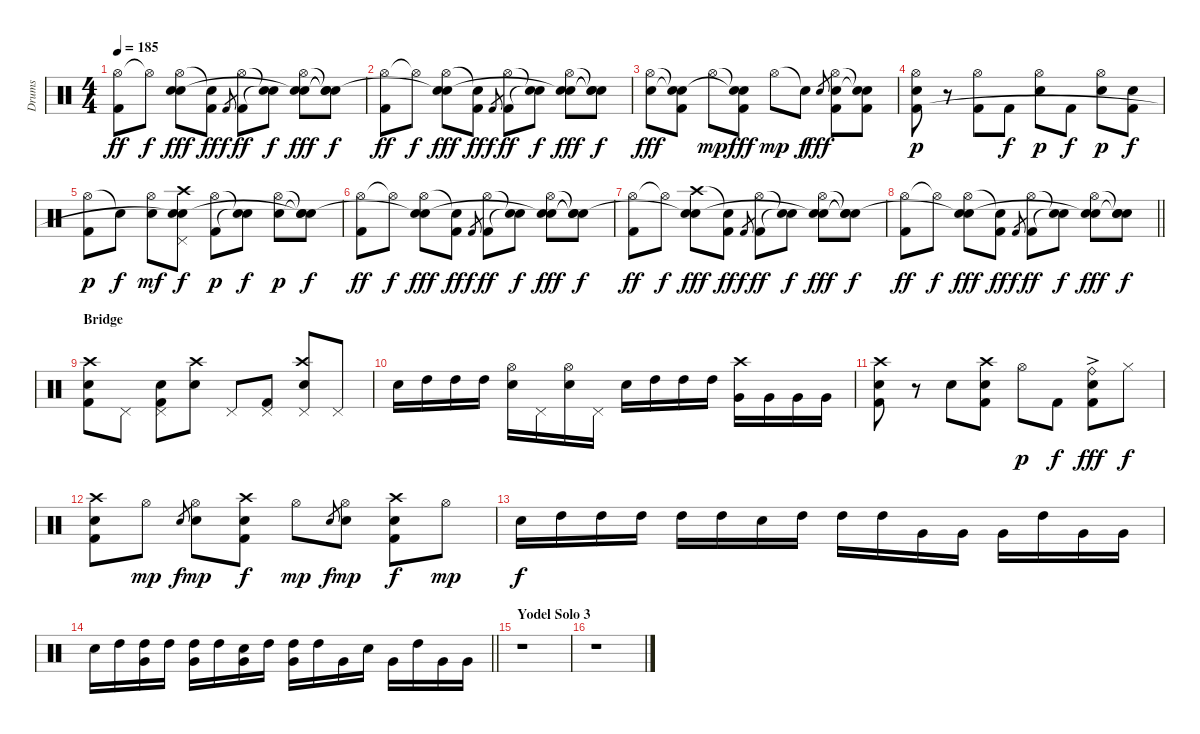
\track ("Drums" "Drums") {instrument percussion}
\staff {score}
\articulation defaults
\ts (4 4)
\tempo 185
\clef neutral
\ks c
("Hi-Hat (open)" "Kick (hit) 2").8{dy ff} "Hi-Hat (open)"{t}.8{dy f} ("Hi-Hat (open)" "Electric Snare (hit)" "Snare (hit)"{t}).8{dy fff} ("Snare (hit)"{t} "Kick (hit) 2").8{dy ff} "Kick (hit) 2".8{gr dy f} ("Hi-Hat (open)" "Kick (hit) 2").8{dy ff} ("Snare (hit)"{t} "Snare (hit)"{t}).8{dy f} ("Hi-Hat (open)" "Electric Snare (hit)" "Snare (hit)"{t}).8{dy fff} ("Snare (hit)"{t} "Snare (hit)"{t} "Snare (hit)"{t}).8{dy f} |
("Hi-Hat (open)" "Kick (hit) 2").8{dy ff} "Hi-Hat (open)"{t}.8{dy f} ("Hi-Hat (open)" "Electric Snare (hit)" "Snare (hit)"{t}).8{dy fff} ("Snare (hit)"{t} "Kick (hit) 2").8{dy ff} "Kick (hit) 2".8{gr dy f} ("Hi-Hat (open)" "Kick (hit) 2").8{dy ff} ("Snare (hit)"{t} "Snare (hit)"{t}).8{dy f} ("Hi-Hat (open)" "Electric Snare (hit)" "Snare (hit)"{t}).8{dy fff} ("Snare (hit)"{t} "Snare (hit)"{t} "Snare (hit)"{t}).8{dy f} |
("Hi-Hat (open)" "Electric Snare (hit)").8{dy fff} ("Snare (hit)"{t} "Snare (hit)"{t} "Kick (hit) 2").8 "Hi-Hat (open)".8{dy mp} ("Snare (hit)"{t} "Snare (hit)"{t} "Kick (hit) 2").8{dy fff} "Hi-Hat (open)".8{dy mp} "Snare (hit)"{t}.8{dy f} "Electric Snare (hit)".8{gr dy fff} ("Hi-Hat (open)" "Electric Snare (hit)" "Kick (hit) 2").8 ("Snare (hit)"{t} "Snare (hit)"{t} "Kick (hit) 2").8 |
("Hi-Hat (open)" "Electric Snare (hit)" "Kick (hit) 2").8{dy p} r.8 ("Hi-Hat (open)" "Kick (hit) 2").8 "Kick (hit) 2".8{dy f} ("Hi-Hat (open)" "Electric Snare (hit)").8{dy p} "Kick (hit) 2".8{dy f} ("Hi-Hat (open)" "Electric Snare (hit)").8{dy p} ("Electric Snare (hit)" "Kick (hit) 2").8{dy f} |
("Hi-Hat (open)" "Kick (hit) 2").8{dy p} "Snare (hit)"{t}.8{dy f} ("Hi-Hat (open)" "Electric Snare (hit)").8{dy mf} ("Crash high (hit)" "Pedal Hi-Hat (hit)" "Snare (hit)"{t} "Snare (hit)").8{dy f} ("Hi-Hat (open)" "Kick (hit) 2").8{dy p} ("Snare (hit)"{t} "Snare (hit)"{t}).8{dy f} ("Hi-Hat (open)" "Electric Snare (hit)").8{dy p} ("Snare (hit)"{t} "Snare (hit)"{t} "Snare (hit)"{t}).8{dy f} |
("Hi-Hat (open)" "Kick (hit) 2").8{dy ff} "Hi-Hat (open)"{t}.8{dy f} ("Hi-Hat (open)" "Electric Snare (hit)" "Snare (hit)"{t}).8{dy fff} ("Snare (hit)"{t} "Kick (hit) 2").8{dy ff} "Kick (hit) 2".8{gr dy f} ("Hi-Hat (open)" "Kick (hit) 2").8{dy ff} ("Snare (hit)"{t} "Snare (hit)"{t}).8{dy f} ("Hi-Hat (open)" "Electric Snare (hit)" "Snare (hit)"{t}).8{dy fff} ("Snare (hit)"{t} "Snare (hit)"{t} "Snare (hit)"{t}).8{dy f} |
("Hi-Hat (open)" "Kick (hit) 2").8{dy ff} "Hi-Hat (open)"{t}.8{dy f} ("Crash high (hit)" "Electric Snare (hit)" "Snare (hit)"{t}).8{dy fff} ("Snare (hit)"{t} "Kick (hit) 2").8{dy ff} "Kick (hit) 2".8{gr dy f} ("Hi-Hat (open)" "Kick (hit) 2").8{dy ff} ("Snare (hit)"{t} "Snare (hit)"{t}).8{dy f} ("Hi-Hat (open)" "Electric Snare (hit)" "Snare (hit)"{t}).8{dy fff} ("Snare (hit)"{t} "Snare (hit)"{t} "Snare (hit)"{t}).8{dy f} |
\barLineRight lightlight
("Hi-Hat (open)" "Kick (hit) 2").8{dy ff} "Hi-Hat (open)"{t}.8{dy f} ("Hi-Hat (open)" "Electric Snare (hit)" "Snare (hit)"{t}).8{dy fff} ("Snare (hit)"{t} "Kick (hit) 2").8{dy ff} "Kick (hit) 2".8{gr dy f} ("Hi-Hat (open)" "Kick (hit) 2").8{dy ff} ("Snare (hit)"{t} "Snare (hit)"{t}).8{dy f} ("Hi-Hat (open)" "Electric Snare (hit)" "Snare (hit)"{t}).8{dy fff} ("Snare (hit)"{t} "Electric Snare (hit)" "Snare (hit)"{t}).8{dy f} |
\section ("" "Bridge")
("Crash high (hit)" "Electric Snare (hit)" "Kick (hit) 2").8 "Pedal Hi-Hat (hit)".8 ("Pedal Hi-Hat (hit)" "Electric Snare (hit)" "Kick (hit) 2").8 ("Crash high (hit)" "Electric Snare (hit)").8 "Pedal Hi-Hat (hit)".8 ("Pedal Hi-Hat (hit)" "Kick (hit) 2").8 ("Crash high (hit)" "Pedal Hi-Hat (hit)" "Electric Snare (hit)").8 "Pedal Hi-Hat (hit)".8 |
"Electric Snare (hit)".16 "High Tom (hit)".16 "High Tom (hit)".16 "High Tom (hit)".16 ("Hi-Hat (open)" "Electric Snare (hit)").16 "Pedal Hi-Hat (hit)".16 ("Hi-Hat (open)" "Electric Snare (hit)").16 "Pedal Hi-Hat (hit)".16 "Electric Snare (hit)".16 "High Tom (hit)".16 "High Tom (hit)".16 "High Tom (hit)".16 ("Crash high (hit)" "Very Low Tom (hit)").16 "Very Low Tom (hit)".16 "Very Low Tom (hit)".16 "Very Low Tom (hit)".16 |
("Crash high (hit)" "Electric Snare (hit)" "Kick (hit) 2").8 r.8 "Electric Snare (hit)".8 ("Crash high (hit)" "Electric Snare (hit)" "Kick (hit) 2").8 "Hi-Hat (open)".8{dy p} "Kick (hit) 2".8{dy f} ("Ride (bell)"{ac} "Electric Snare (hit)" "Kick (hit) 2").8{dy fff} "Hi-Hat (closed)".8{dy f} |
("Crash high (hit)" "Electric Snare (hit)" "Kick (hit) 2").8 "Hi-Hat (open)".8{dy mp} "Electric Snare (hit)".8{gr dy f} ("Hi-Hat (open)" "Electric Snare (hit)").8{dy mp} ("Crash high (hit)" "Electric Snare (hit)" "Kick (hit) 2").8{dy f} "Hi-Hat (open)".8{dy mp} "Electric Snare (hit)".8{gr dy f} ("Hi-Hat (open)" "Electric Snare (hit)").8{dy mp} ("Crash high (hit)" "Electric Snare (hit)" "Kick (hit) 2").8{dy f} "Hi-Hat (open)".8{dy mp} |
"Electric Snare (hit)".16{dy f} "High Tom (hit)".16 "High Tom (hit)".16 "High Tom (hit)".16 "High Tom (hit)".16 "High Tom (hit)".16 "Electric Snare (hit)".16 "High Tom (hit)".16 "High Tom (hit)".16 "High Tom (hit)".16 "Very Low Tom (hit)".16 "Very Low Tom (hit)".16 "Very Low Tom (hit)".16 "High Tom (hit)".16 "Very Low Tom (hit)".16 "Very Low Tom (hit)".16 |
\barLineRight lightlight "Electric Snare (hit)".16 "High Tom (hit)".16
("High Tom (hit)" "Very Low Tom (hit)").16 "High Tom (hit)".16 ("High Tom (hit)" "Very Low Tom (hit)").16 "High Tom (hit)".16 ("Electric Snare (hit)" "Very Low Tom (hit)").16 "High Tom (hit)".16 ("High Tom (hit)" "Very Low Tom (hit)").16 "High Tom (hit)".16 "Very Low Tom (hit)".16 "Electric Snare (hit)".16 "Very Low Tom (hit)".16 "High Tom (hit)".16 "Very Low Tom (hit)".16 "Very Low Tom (hit)".16 |
\section ("" "Yodel Solo 3")
r.1 |
r.1
